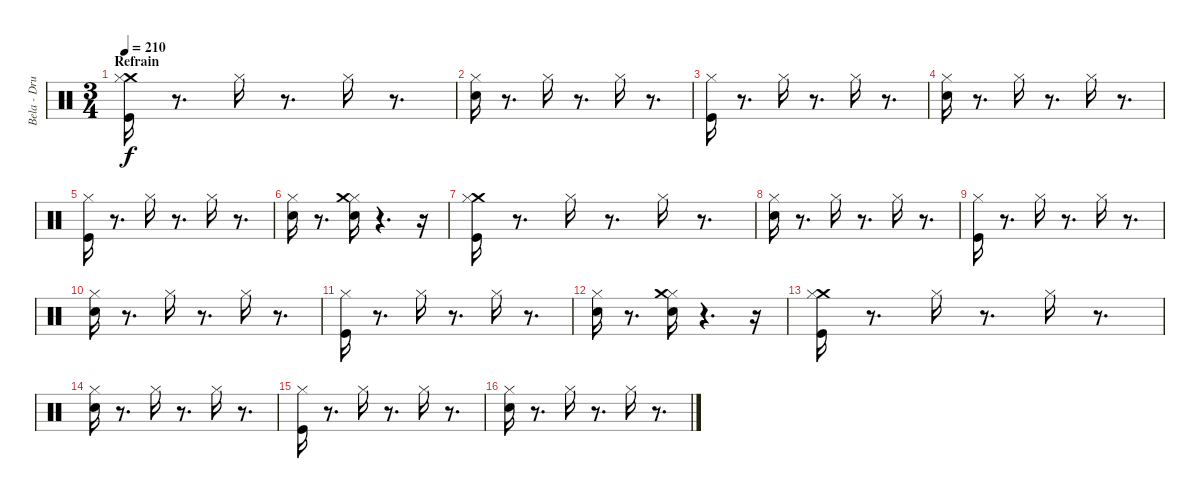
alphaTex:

\track ("Bela - Drums" "Bela - Dru") {instrument percussion}
\staff {score}
\articulation defaults
\ts (3 4)
\section ("" "Refrain")
\tempo 210
\clef neutral
\ks c
("Kick (hit)" "Crash medium (hit)" "Hi-Hat (closed)").16{dy f} r.8{d} "Hi-Hat (closed)".16 r.8{d} "Hi-Hat (closed)".16 r.8{d} |
("Hi-Hat (closed)" "Electric Snare (hit)").16 r.8{d} "Hi-Hat (closed)".16 r.8{d} "Hi-Hat (closed)".16 r.8{d} |
("Kick (hit)" "Hi-Hat (closed)").16 r.8{d} "Hi-Hat (closed)".16 r.8{d} "Hi-Hat (closed)".16 r.8{d} |
("Hi-Hat (closed)" "Electric Snare (hit)").16 r.8{d} "Hi-Hat (closed)".16 r.8{d} "Hi-Hat (closed)".16 r.8{d} |
("Kick (hit)" "Hi-Hat (closed)").16 r.8{d} "Hi-Hat (closed)".16 r.8{d} "Hi-Hat (closed)".16 r.8{d} |
("Hi-Hat (closed)" "Electric Snare (hit)").16 r.8{d} ("Hi-Hat (closed)" "Electric Snare (hit)" "Crash medium (hit)").16 r.4{d} r.16 |
("Kick (hit)" "Crash medium (hit)" "Hi-Hat (closed)").16 r.8{d} "Hi-Hat (closed)".16 r.8{d} "Hi-Hat (closed)".16 r.8{d} |
("Hi-Hat (closed)" "Electric Snare (hit)").16 r.8{d} "Hi-Hat (closed)".16 r.8{d} "Hi-Hat (closed)".16 r.8{d} |
("Kick (hit)" "Hi-Hat (closed)").16 r.8{d} "Hi-Hat (closed)".16 r.8{d} "Hi-Hat (closed)".16 r.8{d} |
("Hi-Hat (closed)" "Electric Snare (hit)").16 r.8{d} "Hi-Hat (closed)".16 r.8{d} "Hi-Hat (closed)".16 r.8{d} |
("Kick (hit)" "Hi-Hat (closed)").16 r.8{d} "Hi-Hat (closed)".16 r.8{d} "Hi-Hat (closed)".16 r.8{d} |
("Hi-Hat (closed)" "Electric Snare (hit)").16 r.8{d} ("Hi-Hat (closed)" "Electric Snare (hit)" "Crash medium (hit)").16 r.4{d} r.16 |
("Kick (hit)" "Crash medium (hit)" "Hi-Hat (closed)").16 r.8{d} "Hi-Hat (closed)".16 r.8{d} "Hi-Hat (closed)".16 r.8{d} |
("Hi-Hat (closed)" "Electric Snare (hit)").16 r.8{d} "Hi-Hat (closed)".16 r.8{d} "Hi-Hat (closed)".16 r.8{d} |
("Kick (hit)" "Hi-Hat (closed)").16 r.8{d} "Hi-Hat (closed)".16 r.8{d} "Hi-Hat (closed)".16 r.8{d} |
("Hi-Hat (closed)" "Electric Snare (hit)").16 r.8{d} "Hi-Hat (closed)".16 r.8{d} "Hi-Hat (closed)".16 r.8{d}
